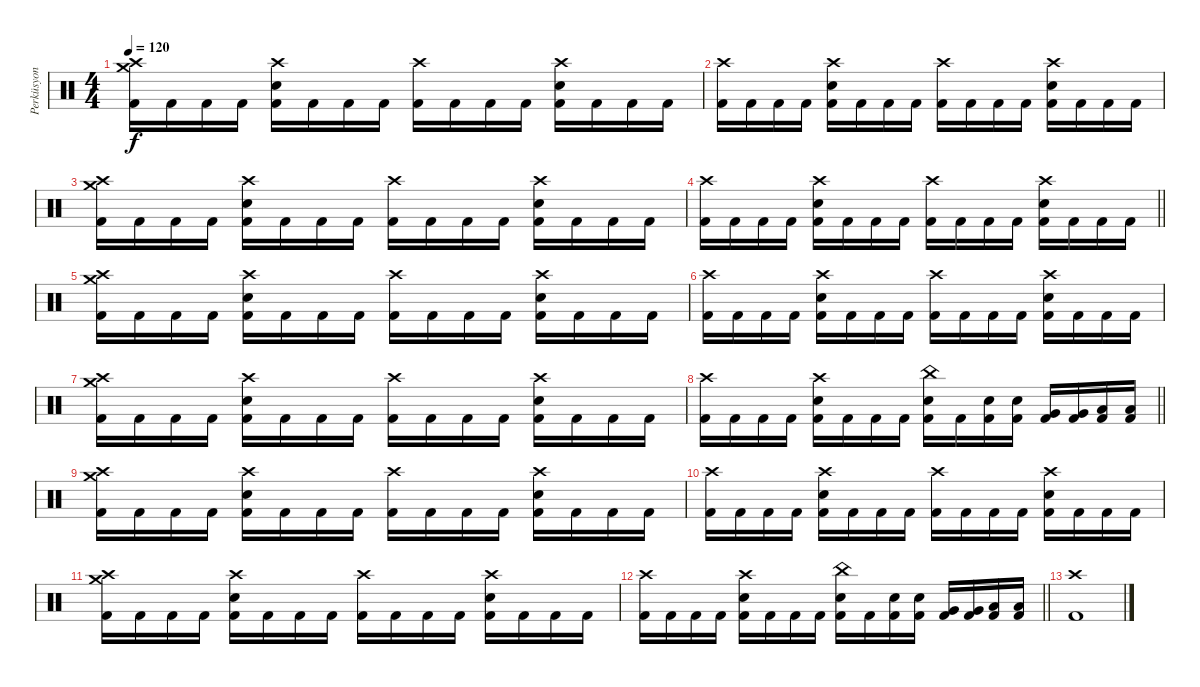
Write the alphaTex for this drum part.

\track ("Perküsyon" "Perküsyon") {instrument percussion}
\staff {score}
\articulation defaults
\ts (4 4)
\tempo 120
\clef neutral
\ks c
("Crash medium (hit)" "Crash high (hit)" "Kick (hit) 2").16{dy f} "Kick (hit) 2".16 "Kick (hit) 2".16 "Kick (hit) 2".16 ("Snare (hit) 2" "Crash high (hit)" "Kick (hit) 2").16 "Kick (hit) 2".16 "Kick (hit) 2".16 "Kick (hit) 2".16 ("Crash high (hit)" "Kick (hit) 2").16 "Kick (hit) 2".16 "Kick (hit) 2".16 "Kick (hit) 2".16 ("Snare (hit) 2" "Crash high (hit)" "Kick (hit) 2").16 "Kick (hit) 2".16 "Kick (hit) 2".16 "Kick (hit) 2".16 |
("Crash high (hit)" "Kick (hit) 2").16 "Kick (hit) 2".16 "Kick (hit) 2".16 "Kick (hit) 2".16 ("Snare (hit) 2" "Crash high (hit)" "Kick (hit) 2").16 "Kick (hit) 2".16 "Kick (hit) 2".16 "Kick (hit) 2".16 ("Crash high (hit)" "Kick (hit) 2").16 "Kick (hit) 2".16 "Kick (hit) 2".16 "Kick (hit) 2".16 ("Snare (hit) 2" "Crash high (hit)" "Kick (hit) 2").16 "Kick (hit) 2".16 "Kick (hit) 2".16 "Kick (hit) 2".16 |
("Crash high (hit)" "Crash medium (hit)" "Kick (hit) 2").16 "Kick (hit) 2".16 "Kick (hit) 2".16 "Kick (hit) 2".16 ("Snare (hit) 2" "Crash high (hit)" "Kick (hit) 2").16 "Kick (hit) 2".16 "Kick (hit) 2".16 "Kick (hit) 2".16 ("Crash high (hit)" "Kick (hit) 2").16 "Kick (hit) 2".16 "Kick (hit) 2".16 "Kick (hit) 2".16 ("Snare (hit) 2" "Crash high (hit)" "Kick (hit) 2").16 "Kick (hit) 2".16 "Kick (hit) 2".16 "Kick (hit) 2".16 |
\barLineRight lightlight
("Crash high (hit)" "Kick (hit) 2").16 "Kick (hit) 2".16 "Kick (hit) 2".16 "Kick (hit) 2".16 ("Snare (hit) 2" "Crash high (hit)" "Kick (hit) 2").16 "Kick (hit) 2".16 "Kick (hit) 2".16 "Kick (hit) 2".16 ("Crash high (hit)" "Kick (hit) 2").16 "Kick (hit) 2".16 "Kick (hit) 2".16 "Kick (hit) 2".16 ("Snare (hit) 2" "Crash high (hit)" "Kick (hit) 2").16 "Kick (hit) 2".16 "Kick (hit) 2".16 "Kick (hit) 2".16 |
("Crash medium (hit)" "Crash high (hit)" "Kick (hit) 2").16 "Kick (hit) 2".16 "Kick (hit) 2".16 "Kick (hit) 2".16 ("Snare (hit) 2" "Crash high (hit)" "Kick (hit) 2").16 "Kick (hit) 2".16 "Kick (hit) 2".16 "Kick (hit) 2".16 ("Crash high (hit)" "Kick (hit) 2").16 "Kick (hit) 2".16 "Kick (hit) 2".16 "Kick (hit) 2".16 ("Snare (hit) 2" "Crash high (hit)" "Kick (hit) 2").16 "Kick (hit) 2".16 "Kick (hit) 2".16 "Kick (hit) 2".16 |
("Crash high (hit)" "Kick (hit) 2").16 "Kick (hit) 2".16 "Kick (hit) 2".16 "Kick (hit) 2".16 ("Snare (hit) 2" "Crash high (hit)" "Kick (hit) 2").16 "Kick (hit) 2".16 "Kick (hit) 2".16 "Kick (hit) 2".16 ("Crash high (hit)" "Kick (hit) 2").16 "Kick (hit) 2".16 "Kick (hit) 2".16 "Kick (hit) 2".16 ("Snare (hit) 2" "Crash high (hit)" "Kick (hit) 2").16 "Kick (hit) 2".16 "Kick (hit) 2".16 "Kick (hit) 2".16 |
("Crash high (hit)" "Crash medium (hit)" "Kick (hit) 2").16 "Kick (hit) 2".16 "Kick (hit) 2".16 "Kick (hit) 2".16 ("Snare (hit) 2" "Crash high (hit)" "Kick (hit) 2").16 "Kick (hit) 2".16 "Kick (hit) 2".16 "Kick (hit) 2".16 ("Crash high (hit)" "Kick (hit) 2").16 "Kick (hit) 2".16 "Kick (hit) 2".16 "Kick (hit) 2".16 ("Snare (hit) 2" "Crash high (hit)" "Kick (hit) 2").16 "Kick (hit) 2".16 "Kick (hit) 2".16 "Kick (hit) 2".16 |
\barLineRight lightlight
("Crash high (hit)" "Kick (hit) 2").16 "Kick (hit) 2".16 "Kick (hit) 2".16 "Kick (hit) 2".16 ("Snare (hit) 2" "Crash high (hit)" "Kick (hit) 2").16 "Kick (hit) 2".16 "Kick (hit) 2".16 "Kick (hit) 2".16 ("Snare (hit) 2" "China (hit)" "Kick (hit) 2").16 "Kick (hit) 2".16 ("Snare (hit) 2" "Kick (hit) 2").16 ("Snare (hit) 2" "Kick (hit) 2").16 ("Very Low Tom (hit)" "Kick (hit) 2").16 ("Very Low Tom (hit)" "Kick (hit) 2").16 ("Low Floor Tom (hit)" "Kick (hit) 2").16 ("Low Floor Tom (hit)" "Kick (hit) 2").16 |
("Crash medium (hit)" "Crash high (hit)" "Kick (hit) 2").16 "Kick (hit) 2".16 "Kick (hit) 2".16 "Kick (hit) 2".16 ("Snare (hit) 2" "Crash high (hit)" "Kick (hit) 2").16 "Kick (hit) 2".16 "Kick (hit) 2".16 "Kick (hit) 2".16 ("Crash high (hit)" "Kick (hit) 2").16 "Kick (hit) 2".16 "Kick (hit) 2".16 "Kick (hit) 2".16 ("Snare (hit) 2" "Crash high (hit)" "Kick (hit) 2").16 "Kick (hit) 2".16 "Kick (hit) 2".16 "Kick (hit) 2".16 |
("Crash high (hit)" "Kick (hit) 2").16 "Kick (hit) 2".16 "Kick (hit) 2".16 "Kick (hit) 2".16 ("Snare (hit) 2" "Crash high (hit)" "Kick (hit) 2").16 "Kick (hit) 2".16 "Kick (hit) 2".16 "Kick (hit) 2".16 ("Crash high (hit)" "Kick (hit) 2").16 "Kick (hit) 2".16 "Kick (hit) 2".16 "Kick (hit) 2".16 ("Snare (hit) 2" "Crash high (hit)" "Kick (hit) 2").16 "Kick (hit) 2".16 "Kick (hit) 2".16 "Kick (hit) 2".16 |
("Crash high (hit)" "Crash medium (hit)" "Kick (hit) 2").16 "Kick (hit) 2".16 "Kick (hit) 2".16 "Kick (hit) 2".16 ("Snare (hit) 2" "Crash high (hit)" "Kick (hit) 2").16 "Kick (hit) 2".16 "Kick (hit) 2".16 "Kick (hit) 2".16 ("Crash high (hit)" "Kick (hit) 2").16 "Kick (hit) 2".16 "Kick (hit) 2".16 "Kick (hit) 2".16 ("Snare (hit) 2" "Crash high (hit)" "Kick (hit) 2").16 "Kick (hit) 2".16 "Kick (hit) 2".16 "Kick (hit) 2".16 |
\barLineRight lightlight
("Crash high (hit)" "Kick (hit) 2").16 "Kick (hit) 2".16 "Kick (hit) 2".16 "Kick (hit) 2".16 ("Snare (hit) 2" "Crash high (hit)" "Kick (hit) 2").16 "Kick (hit) 2".16 "Kick (hit) 2".16 "Kick (hit) 2".16 ("Snare (hit) 2" "China (hit)" "Kick (hit) 2").16 "Kick (hit) 2".16 ("Snare (hit) 2" "Kick (hit) 2").16 ("Snare (hit) 2" "Kick (hit) 2").16 ("Very Low Tom (hit)" "Kick (hit) 2").16 ("Very Low Tom (hit)" "Kick (hit) 2").16 ("Low Floor Tom (hit)" "Kick (hit) 2").16 ("Low Floor Tom (hit)" "Kick (hit) 2").16 |
("Crash high (hit)" "Kick (hit) 2").1
